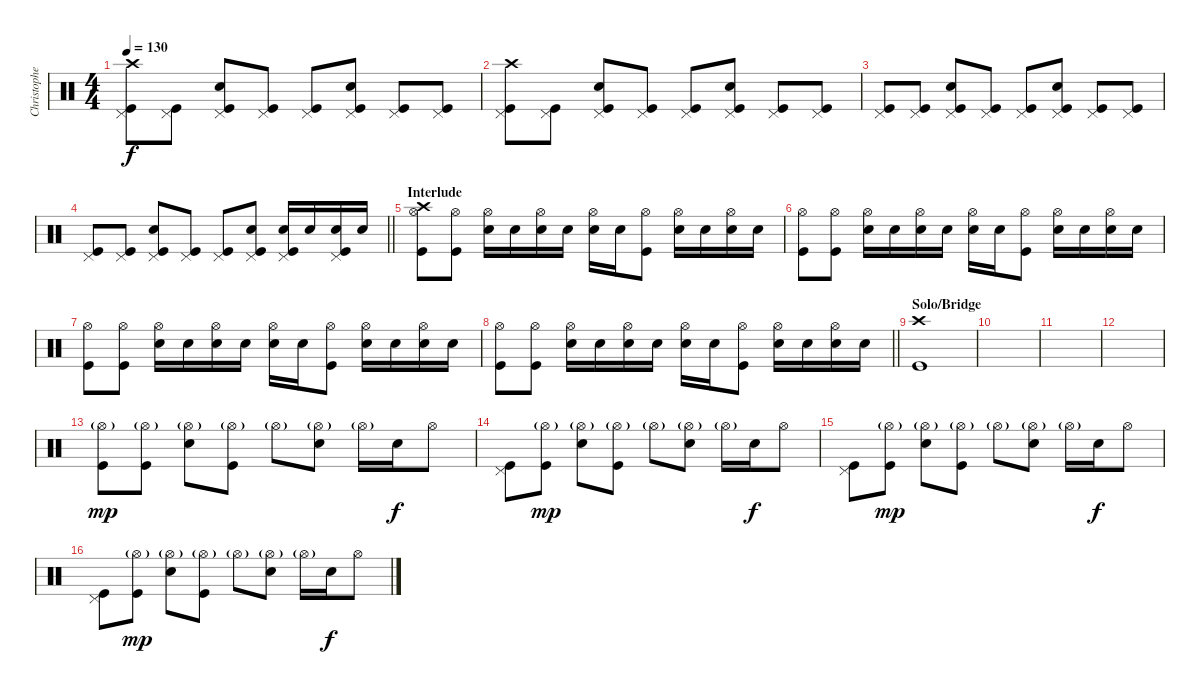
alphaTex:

\track ("Christopher - Drums" "Christophe") {instrument percussion}
\staff {score}
\articulation defaults
\ts (4 4)
\tempo 130
\clef neutral
\ks c
("Crash high (hit)" "Pedal Hi-Hat (hit)" "Kick (hit)").8{dy f} ("Pedal Hi-Hat (hit)" "Kick (hit)").8 ("Pedal Hi-Hat (hit)" "Snare (hit) 2" "Kick (hit)").8 ("Pedal Hi-Hat (hit)" "Kick (hit)").8 ("Pedal Hi-Hat (hit)" "Kick (hit)").8 ("Pedal Hi-Hat (hit)" "Snare (hit) 2" "Kick (hit)").8 ("Pedal Hi-Hat (hit)" "Kick (hit)").8 ("Pedal Hi-Hat (hit)" "Kick (hit)").8 |
("Crash high (hit)" "Pedal Hi-Hat (hit)" "Kick (hit)").8 ("Pedal Hi-Hat (hit)" "Kick (hit)").8 ("Pedal Hi-Hat (hit)" "Snare (hit) 2" "Kick (hit)").8 ("Pedal Hi-Hat (hit)" "Kick (hit)").8 ("Pedal Hi-Hat (hit)" "Kick (hit)").8 ("Pedal Hi-Hat (hit)" "Snare (hit) 2" "Kick (hit)").8 ("Pedal Hi-Hat (hit)" "Kick (hit)").8 ("Pedal Hi-Hat (hit)" "Kick (hit)").8 |
("Pedal Hi-Hat (hit)" "Kick (hit)").8 ("Pedal Hi-Hat (hit)" "Kick (hit)").8 ("Pedal Hi-Hat (hit)" "Snare (hit) 2" "Kick (hit)").8 ("Pedal Hi-Hat (hit)" "Kick (hit)").8 ("Pedal Hi-Hat (hit)" "Kick (hit)").8 ("Pedal Hi-Hat (hit)" "Snare (hit) 2" "Kick (hit)").8 ("Pedal Hi-Hat (hit)" "Kick (hit)").8 ("Pedal Hi-Hat (hit)" "Kick (hit)").8 |
\barLineRight lightlight
("Pedal Hi-Hat (hit)" "Kick (hit)").8 ("Pedal Hi-Hat (hit)" "Kick (hit)").8 ("Pedal Hi-Hat (hit)" "Snare (hit) 2" "Kick (hit)").8 ("Pedal Hi-Hat (hit)" "Kick (hit)").8 ("Pedal Hi-Hat (hit)" "Kick (hit)").8 ("Pedal Hi-Hat (hit)" "Snare (hit) 2" "Kick (hit)").8 ("Pedal Hi-Hat (hit)" "Snare (hit) 2" "Kick (hit)").16 "Snare (hit) 2".16 ("Pedal Hi-Hat (hit)" "Snare (hit) 2" "Kick (hit)").16 "Snare (hit) 2".16 |
\section ("" "Interlude")
("Crash high (hit)" "Hi-Hat (open)" "Kick (hit)").8 ("Hi-Hat (open)" "Kick (hit)").8 ("Hi-Hat (open)" "Snare (hit) 2").16 "Snare (hit) 2".16 ("Hi-Hat (open)" "Snare (hit) 2").16 "Snare (hit) 2".16 ("Hi-Hat (open)" "Snare (hit) 2").16 "Snare (hit) 2".16 ("Hi-Hat (open)" "Kick (hit)").8 ("Hi-Hat (open)" "Snare (hit) 2").16 "Snare (hit) 2".16 ("Hi-Hat (open)" "Snare (hit) 2").16 "Snare (hit) 2".16 |
("Hi-Hat (open)" "Kick (hit)").8 ("Hi-Hat (open)" "Kick (hit)").8 ("Hi-Hat (open)" "Snare (hit) 2").16 "Snare (hit) 2".16 ("Hi-Hat (open)" "Snare (hit) 2").16 "Snare (hit) 2".16 ("Hi-Hat (open)" "Snare (hit) 2").16 "Snare (hit) 2".16 ("Hi-Hat (open)" "Kick (hit)").8 ("Hi-Hat (open)" "Snare (hit) 2").16 "Snare (hit) 2".16 ("Hi-Hat (open)" "Snare (hit) 2").16 "Snare (hit) 2".16 |
("Hi-Hat (open)" "Kick (hit)").8 ("Hi-Hat (open)" "Kick (hit)").8 ("Hi-Hat (open)" "Snare (hit) 2").16 "Snare (hit) 2".16 ("Hi-Hat (open)" "Snare (hit) 2").16 "Snare (hit) 2".16 ("Hi-Hat (open)" "Snare (hit) 2").16 "Snare (hit) 2".16 ("Hi-Hat (open)" "Kick (hit)").8 ("Hi-Hat (open)" "Snare (hit) 2").16 "Snare (hit) 2".16 ("Hi-Hat (open)" "Snare (hit) 2").16 "Snare (hit) 2".16 |
\barLineRight lightlight
("Hi-Hat (open)" "Kick (hit)").8 ("Hi-Hat (open)" "Kick (hit)").8 ("Hi-Hat (open)" "Snare (hit) 2").16 "Snare (hit) 2".16 ("Hi-Hat (open)" "Snare (hit) 2").16 "Snare (hit) 2".16 ("Hi-Hat (open)" "Snare (hit) 2").16 "Snare (hit) 2".16 ("Hi-Hat (open)" "Kick (hit)").8 ("Hi-Hat (open)" "Snare (hit) 2").16 "Snare (hit) 2".16 ("Hi-Hat (open)" "Snare (hit) 2").16 "Snare (hit) 2".16 |
\section ("" "Solo/Bridge")
("Crash high (hit)" "Kick (hit)").1 |
|
|
|
("Hi-Hat (open)"{g} "Kick (hit)").8{dy mp} ("Hi-Hat (open)"{g} "Kick (hit)").8 ("Hi-Hat (open)"{g} "Snare (hit) 2").8 ("Hi-Hat (open)"{g} "Kick (hit)").8 "Hi-Hat (open)"{g}.8 ("Hi-Hat (open)"{g} "Snare (hit) 2").8 "Hi-Hat (open)"{g}.16 "Snare (hit) 2".16{dy f} "Hi-Hat (open)".8 |
("Pedal Hi-Hat (hit)" "Kick (hit)").8 ("Hi-Hat (open)"{g} "Kick (hit)").8{dy mp} ("Hi-Hat (open)"{g} "Snare (hit) 2").8 ("Hi-Hat (open)"{g} "Kick (hit)").8 "Hi-Hat (open)"{g}.8 ("Hi-Hat (open)"{g} "Snare (hit) 2").8 "Hi-Hat (open)"{g}.16 "Snare (hit) 2".16{dy f} "Hi-Hat (open)".8 |
("Pedal Hi-Hat (hit)" "Kick (hit)").8 ("Hi-Hat (open)"{g} "Kick (hit)").8{dy mp} ("Hi-Hat (open)"{g} "Snare (hit) 2").8 ("Hi-Hat (open)"{g} "Kick (hit)").8 "Hi-Hat (open)"{g}.8 ("Hi-Hat (open)"{g} "Snare (hit) 2").8 "Hi-Hat (open)"{g}.16 "Snare (hit) 2".16{dy f} "Hi-Hat (open)".8 |
("Pedal Hi-Hat (hit)" "Kick (hit)").8 ("Hi-Hat (open)"{g} "Kick (hit)").8{dy mp} ("Hi-Hat (open)"{g} "Snare (hit) 2").8 ("Hi-Hat (open)"{g} "Kick (hit)").8 "Hi-Hat (open)"{g}.8 ("Hi-Hat (open)"{g} "Snare (hit) 2").8 "Hi-Hat (open)"{g}.16 "Snare (hit) 2".16{dy f} "Hi-Hat (open)".8
